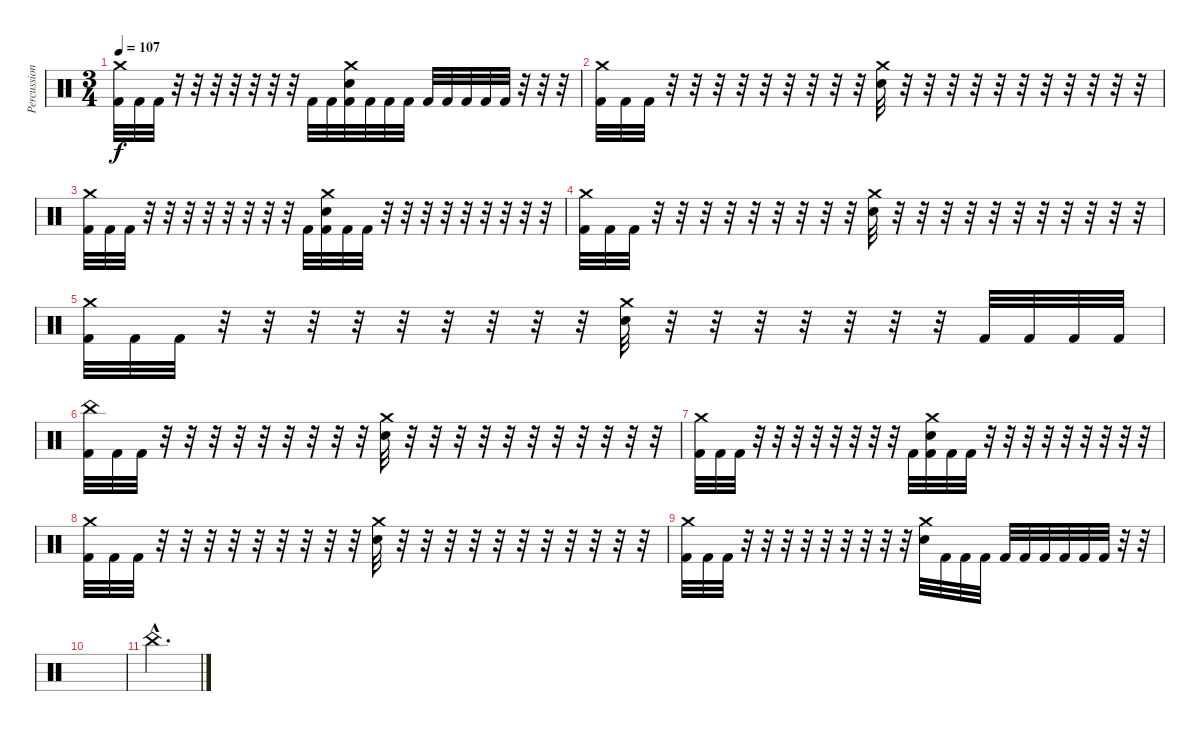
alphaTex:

\track ("Percussion" "Percussion") {instrument percussion}
\staff {score}
\articulation defaults
\ts (3 4)
\tempo 107
\clef neutral
\ks c
("Crash medium (hit)" "Kick (hit) 2").32{dy f} "Kick (hit) 2".32 "Kick (hit) 2".32 r.32 r.32 r.32 r.32 r.32 r.32 r.32 "Kick (hit) 2".32 "Kick (hit) 2".32 ("Crash medium (hit)" "Electric Snare (hit)" "Kick (hit) 2").32 "Kick (hit) 2".32 "Kick (hit) 2".32 "Kick (hit) 2".32 "Kick (hit) 2".32 "Kick (hit) 2".32 "Kick (hit) 2".32 "Kick (hit) 2".32 "Kick (hit) 2".32 r.32 r.32 r.32 |
("Crash medium (hit)" "Kick (hit) 2").32 "Kick (hit) 2".32 "Kick (hit) 2".32 r.32 r.32 r.32 r.32 r.32 r.32 r.32 r.32 r.32 ("Crash medium (hit)" "Electric Snare (hit)").32 r.32 r.32 r.32 r.32 r.32 r.32 r.32 r.32 r.32 r.32 r.32 |
("Crash medium (hit)" "Kick (hit) 2").32 "Kick (hit) 2".32 "Kick (hit) 2".32 r.32 r.32 r.32 r.32 r.32 r.32 r.32 r.32 "Kick (hit) 2".32 ("Crash medium (hit)" "Electric Snare (hit)" "Kick (hit) 2").32 "Kick (hit) 2".32 "Kick (hit) 2".32 r.32 r.32 r.32 r.32 r.32 r.32 r.32 r.32 r.32 |
("Crash medium (hit)" "Kick (hit) 2").32 "Kick (hit) 2".32 "Kick (hit) 2".32 r.32 r.32 r.32 r.32 r.32 r.32 r.32 r.32 r.32 ("Crash medium (hit)" "Electric Snare (hit)").32 r.32 r.32 r.32 r.32 r.32 r.32 r.32 r.32 r.32 r.32 r.32 |
("Crash medium (hit)" "Kick (hit) 2").32 "Kick (hit) 2".32 "Kick (hit) 2".32 r.32 r.32 r.32 r.32 r.32 r.32 r.32 r.32 r.32 ("Crash medium (hit)" "Electric Snare (hit)").32 r.32 r.32 r.32 r.32 r.32 r.32 r.32 "Kick (hit) 2".32 "Kick (hit) 2".32 "Kick (hit) 2".32 "Kick (hit) 2".32 |
("China (hit)" "Kick (hit) 2").32 "Kick (hit) 2".32 "Kick (hit) 2".32 r.32 r.32 r.32 r.32 r.32 r.32 r.32 r.32 r.32 ("Crash medium (hit)" "Electric Snare (hit)").32 r.32 r.32 r.32 r.32 r.32 r.32 r.32 r.32 r.32 r.32 r.32 |
("Crash medium (hit)" "Kick (hit) 2").32 "Kick (hit) 2".32 "Kick (hit) 2".32 r.32 r.32 r.32 r.32 r.32 r.32 r.32 r.32 "Kick (hit) 2".32 ("Crash medium (hit)" "Electric Snare (hit)" "Kick (hit) 2").32 "Kick (hit) 2".32 "Kick (hit) 2".32 r.32 r.32 r.32 r.32 r.32 r.32 r.32 r.32 r.32 |
("Crash medium (hit)" "Kick (hit) 2").32 "Kick (hit) 2".32 "Kick (hit) 2".32 r.32 r.32 r.32 r.32 r.32 r.32 r.32 r.32 r.32 ("Crash medium (hit)" "Electric Snare (hit)").32 r.32 r.32 r.32 r.32 r.32 r.32 r.32 r.32 r.32 r.32 r.32 |
("Crash medium (hit)" "Kick (hit) 2").32 "Kick (hit) 2".32 "Kick (hit) 2".32 r.32 r.32 r.32 r.32 r.32 r.32 r.32 r.32 r.32 ("Crash medium (hit)" "Electric Snare (hit)").32 "Kick (hit) 2".32 "Kick (hit) 2".32 "Kick (hit) 2".32 "Kick (hit) 2".32 "Kick (hit) 2".32 "Kick (hit) 2".32 "Kick (hit) 2".32 "Kick (hit) 2".32 "Kick (hit) 2".32 r.32 r.32 |
|
"China (hit)"{hac}.2{d}
